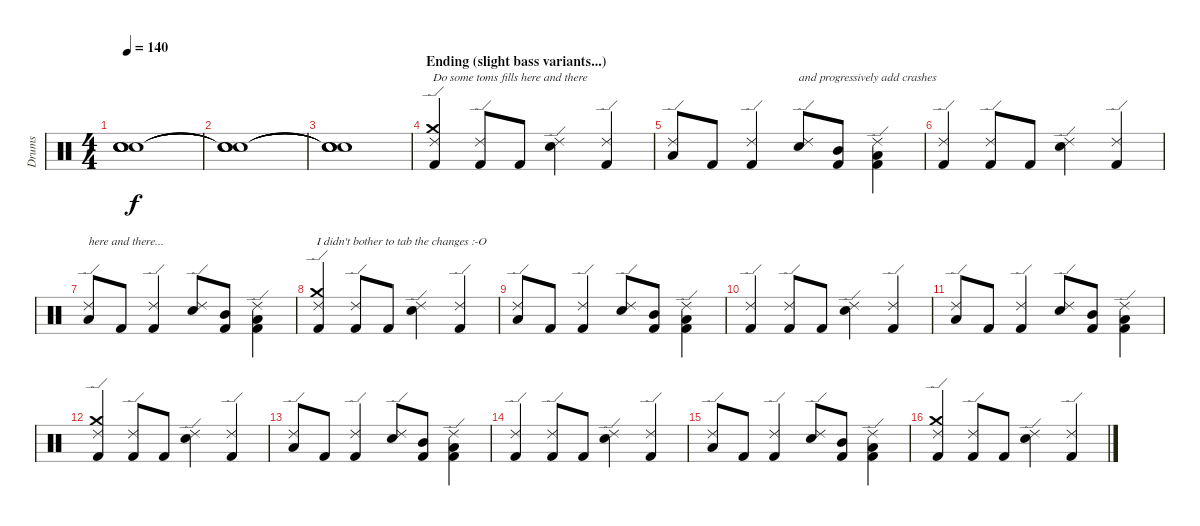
\track ("Drums" "Drums") {instrument percussion}
\staff {score}
\articulation defaults
\ts (4 4)
\tempo 140
\clef neutral
\ks c
("Snare (hit)"{t} "Snare (hit)"{t} "Snare (hit)"{t} "Snare (hit)"{t}).1{dy f} |
("Snare (hit)"{t} "Snare (hit)"{t} "Snare (hit)"{t} "Snare (hit)"{t}).1 |
("Snare (hit)"{t} "Snare (hit)"{t} "Snare (hit)"{t} "Snare (hit)"{t}).1 |
\section ("" "Ending (slight bass variants...)")
("Ride (edge) 2" "Crash medium (hit)" "Kick (hit) 2").4{txt "Do some toms fills here and there"} ("Ride (edge) 2" "Kick (hit) 2").8 "Kick (hit) 2".8 ("Ride (edge) 2" "Snare (hit) 2").4 ("Ride (edge) 2" "Kick (hit) 2").4 |
("Ride (edge) 2" "Low Tom (hit)").8 "Kick (hit) 2".8 ("Ride (edge) 2" "Kick (hit) 2").4 ("Ride (edge) 2" "Snare (hit) 2").8{txt "and progressively add crashes"} ("Mid Tom (hit)" "Kick (hit) 2").8 ("Ride (edge) 2" "Low Tom (hit)" "Kick (hit) 2").4 |
("Ride (edge) 2" "Kick (hit) 2").4 ("Ride (edge) 2" "Kick (hit) 2").8 "Kick (hit) 2".8 ("Ride (edge) 2" "Snare (hit) 2").4 ("Ride (edge) 2" "Kick (hit) 2").4 |
("Ride (edge) 2" "Low Tom (hit)").8{txt "here and there..."} "Kick (hit) 2".8 ("Ride (edge) 2" "Kick (hit) 2").4 ("Ride (edge) 2" "Snare (hit) 2").8 ("Mid Tom (hit)" "Kick (hit) 2").8 ("Ride (edge) 2" "Low Tom (hit)" "Kick (hit) 2").4 |
("Ride (edge) 2" "Crash medium (hit)" "Kick (hit) 2").4{txt "I didn't bother to tab the changes :-O"} ("Ride (edge) 2" "Kick (hit) 2").8 "Kick (hit) 2".8 ("Ride (edge) 2" "Snare (hit) 2").4 ("Ride (edge) 2" "Kick (hit) 2").4 |
("Ride (edge) 2" "Low Tom (hit)").8 "Kick (hit) 2".8 ("Ride (edge) 2" "Kick (hit) 2").4 ("Ride (edge) 2" "Snare (hit) 2").8 ("Mid Tom (hit)" "Kick (hit) 2").8 ("Ride (edge) 2" "Low Tom (hit)" "Kick (hit) 2").4 |
("Ride (edge) 2" "Kick (hit) 2").4 ("Ride (edge) 2" "Kick (hit) 2").8 "Kick (hit) 2".8 ("Ride (edge) 2" "Snare (hit) 2").4 ("Ride (edge) 2" "Kick (hit) 2").4 |
("Ride (edge) 2" "Low Tom (hit)").8 "Kick (hit) 2".8 ("Ride (edge) 2" "Kick (hit) 2").4 ("Ride (edge) 2" "Snare (hit) 2").8 ("Mid Tom (hit)" "Kick (hit) 2").8 ("Ride (edge) 2" "Low Tom (hit)" "Kick (hit) 2").4 |
("Ride (edge) 2" "Crash medium (hit)" "Kick (hit) 2").4 ("Ride (edge) 2" "Kick (hit) 2").8 "Kick (hit) 2".8 ("Ride (edge) 2" "Snare (hit) 2").4 ("Ride (edge) 2" "Kick (hit) 2").4 |
("Ride (edge) 2" "Low Tom (hit)").8 "Kick (hit) 2".8 ("Ride (edge) 2" "Kick (hit) 2").4 ("Ride (edge) 2" "Snare (hit) 2").8 ("Mid Tom (hit)" "Kick (hit) 2").8 ("Ride (edge) 2" "Low Tom (hit)" "Kick (hit) 2").4 |
("Ride (edge) 2" "Kick (hit) 2").4 ("Ride (edge) 2" "Kick (hit) 2").8 "Kick (hit) 2".8 ("Ride (edge) 2" "Snare (hit) 2").4 ("Ride (edge) 2" "Kick (hit) 2").4 |
("Ride (edge) 2" "Low Tom (hit)").8 "Kick (hit) 2".8 ("Ride (edge) 2" "Kick (hit) 2").4 ("Ride (edge) 2" "Snare (hit) 2").8 ("Mid Tom (hit)" "Kick (hit) 2").8 ("Ride (edge) 2" "Low Tom (hit)" "Kick (hit) 2").4 |
("Ride (edge) 2" "Crash medium (hit)" "Kick (hit) 2").4 ("Ride (edge) 2" "Kick (hit) 2").8 "Kick (hit) 2".8 ("Ride (edge) 2" "Snare (hit) 2").4 ("Ride (edge) 2" "Kick (hit) 2").4
